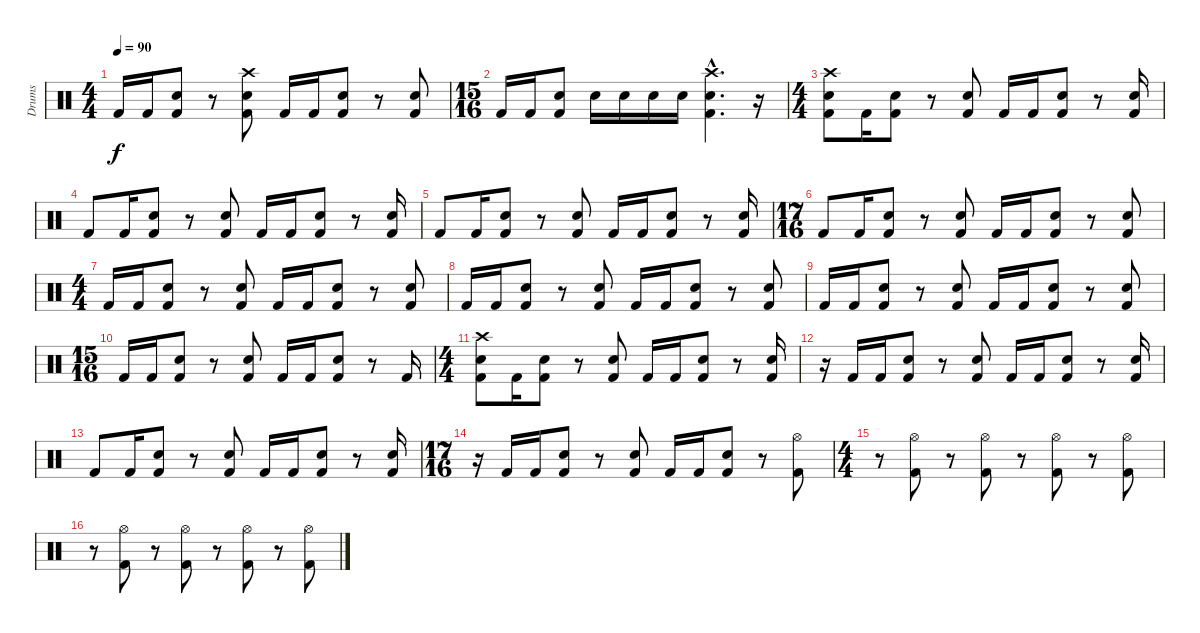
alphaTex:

\track ("Drums" "Drums") {instrument percussion}
\staff {score}
\articulation defaults
\ts (4 4)
\tempo 90
\clef neutral
\ks c "Kick (hit) 2".16{dy f} "Kick (hit) 2".16
("Electric Snare (hit)" "Kick (hit) 2").8 r.8 ("Crash high (hit)" "Electric Snare (hit)" "Kick (hit) 2").8 "Kick (hit) 2".16 "Kick (hit) 2".16 ("Electric Snare (hit)" "Kick (hit) 2").8 r.8 ("Electric Snare (hit)" "Kick (hit) 2").8 |
\ts (15 16)
"Kick (hit) 2".16 "Kick (hit) 2".16 ("Electric Snare (hit)" "Kick (hit) 2").8 "Electric Snare (hit)".16 "Electric Snare (hit)".16 "Electric Snare (hit)".16 "Electric Snare (hit)".16 ("Crash high (hit)"{hac} "Electric Snare (hit)"{hac} "Kick (hit) 2"{hac}).4{d} r.16 |
\ts (4 4)
("Crash high (hit)" "Electric Snare (hit)" "Kick (hit) 2").8 "Kick (hit) 2".16 ("Electric Snare (hit)" "Kick (hit) 2").8 r.8 ("Electric Snare (hit)" "Kick (hit) 2").8 "Kick (hit) 2".16 "Kick (hit) 2".16 ("Electric Snare (hit)" "Kick (hit) 2").8 r.8 ("Electric Snare (hit)" "Kick (hit) 2").16 |
"Kick (hit) 2".8 "Kick (hit) 2".16 ("Electric Snare (hit)" "Kick (hit) 2").8 r.8 ("Electric Snare (hit)" "Kick (hit) 2").8 "Kick (hit) 2".16 "Kick (hit) 2".16 ("Electric Snare (hit)" "Kick (hit) 2").8 r.8 ("Electric Snare (hit)" "Kick (hit) 2").16 |
"Kick (hit) 2".8 "Kick (hit) 2".16 ("Electric Snare (hit)" "Kick (hit) 2").8 r.8 ("Electric Snare (hit)" "Kick (hit) 2").8 "Kick (hit) 2".16 "Kick (hit) 2".16 ("Electric Snare (hit)" "Kick (hit) 2").8 r.8 ("Electric Snare (hit)" "Kick (hit) 2").16 |
\ts (17 16)
"Kick (hit) 2".8 "Kick (hit) 2".16 ("Electric Snare (hit)" "Kick (hit) 2").8 r.8 ("Electric Snare (hit)" "Kick (hit) 2").8 "Kick (hit) 2".16 "Kick (hit) 2".16 ("Electric Snare (hit)" "Kick (hit) 2").8 r.8 ("Electric Snare (hit)" "Kick (hit) 2").8 |
\ts (4 4)
"Kick (hit) 2".16 "Kick (hit) 2".16 ("Electric Snare (hit)" "Kick (hit) 2").8 r.8 ("Electric Snare (hit)" "Kick (hit) 2").8 "Kick (hit) 2".16 "Kick (hit) 2".16 ("Electric Snare (hit)" "Kick (hit) 2").8 r.8 ("Electric Snare (hit)" "Kick (hit) 2").8 |
"Kick (hit) 2".16 "Kick (hit) 2".16 ("Electric Snare (hit)" "Kick (hit) 2").8 r.8 ("Electric Snare (hit)" "Kick (hit) 2").8 "Kick (hit) 2".16 "Kick (hit) 2".16 ("Electric Snare (hit)" "Kick (hit) 2").8 r.8 ("Electric Snare (hit)" "Kick (hit) 2").8 |
"Kick (hit) 2".16 "Kick (hit) 2".16 ("Electric Snare (hit)" "Kick (hit) 2").8 r.8 ("Electric Snare (hit)" "Kick (hit) 2").8 "Kick (hit) 2".16 "Kick (hit) 2".16 ("Electric Snare (hit)" "Kick (hit) 2").8 r.8 ("Electric Snare (hit)" "Kick (hit) 2").8 |
\ts (15 16)
"Kick (hit) 2".16 "Kick (hit) 2".16 ("Electric Snare (hit)" "Kick (hit) 2").8 r.8 ("Electric Snare (hit)" "Kick (hit) 2").8 "Kick (hit) 2".16 "Kick (hit) 2".16 ("Electric Snare (hit)" "Kick (hit) 2").8 r.8 "Kick (hit) 2".16 |
\ts (4 4)
("Crash high (hit)" "Electric Snare (hit)" "Kick (hit) 2").8 "Kick (hit) 2".16 ("Electric Snare (hit)" "Kick (hit) 2").8 r.8 ("Electric Snare (hit)" "Kick (hit) 2").8 "Kick (hit) 2".16 "Kick (hit) 2".16 ("Electric Snare (hit)" "Kick (hit) 2").8 r.8 ("Electric Snare (hit)" "Kick (hit) 2").16 |
r.16 "Kick (hit) 2".16 "Kick (hit) 2".16 ("Electric Snare (hit)" "Kick (hit) 2").8 r.8 ("Electric Snare (hit)" "Kick (hit) 2").8 "Kick (hit) 2".16 "Kick (hit) 2".16 ("Electric Snare (hit)" "Kick (hit) 2").8 r.8 ("Electric Snare (hit)" "Kick (hit) 2").16 |
"Kick (hit) 2".8 "Kick (hit) 2".16 ("Electric Snare (hit)" "Kick (hit) 2").8 r.8 ("Electric Snare (hit)" "Kick (hit) 2").8 "Kick (hit) 2".16 "Kick (hit) 2".16 ("Electric Snare (hit)" "Kick (hit) 2").8 r.8 ("Electric Snare (hit)" "Kick (hit) 2").16 |
\ts (17 16)
r.16 "Kick (hit) 2".16 "Kick (hit) 2".16 ("Electric Snare (hit)" "Kick (hit) 2").8 r.8 ("Electric Snare (hit)" "Kick (hit) 2").8 "Kick (hit) 2".16 "Kick (hit) 2".16 ("Electric Snare (hit)" "Kick (hit) 2").8 r.8 ("Hi-Hat (open)" "Kick (hit) 2").8 |
\ts (4 4)
r.8 ("Hi-Hat (open)" "Kick (hit) 2").8 r.8 ("Hi-Hat (open)" "Kick (hit) 2").8 r.8 ("Hi-Hat (open)" "Kick (hit) 2").8 r.8 ("Hi-Hat (open)" "Kick (hit) 2").8 |
r.8 ("Hi-Hat (open)" "Kick (hit) 2").8 r.8 ("Hi-Hat (open)" "Kick (hit) 2").8 r.8 ("Hi-Hat (open)" "Kick (hit) 2").8 r.8 ("Hi-Hat (open)" "Kick (hit) 2").8
